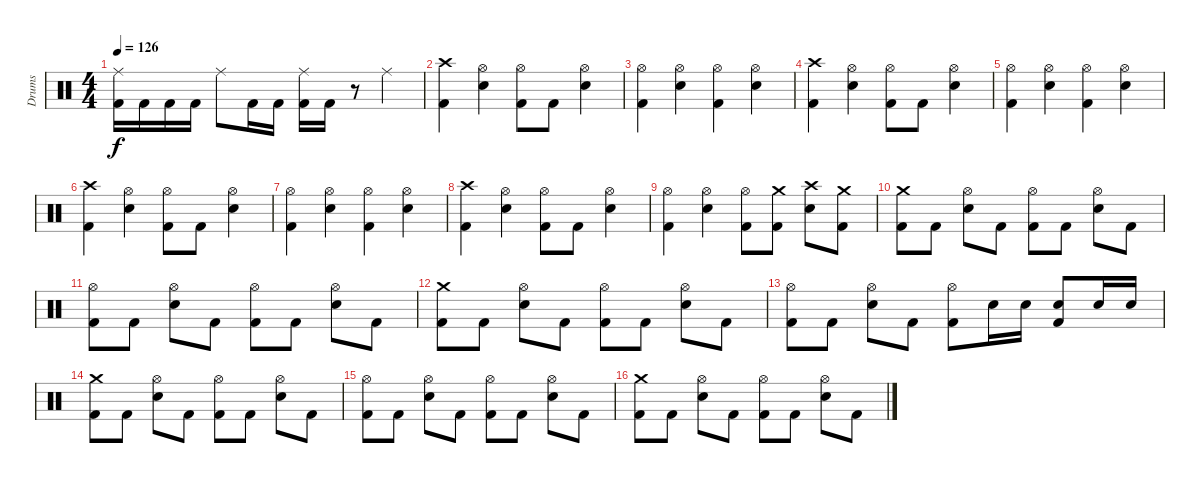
\track ("Drums" "Drums") {instrument percussion}
\staff {score}
\articulation defaults
\ts (4 4)
\tempo 126
\clef neutral
\ks c
("Ride (middle)" "Kick (hit) 2").16{dy f} "Kick (hit) 2".16 "Kick (hit) 2".16 "Kick (hit) 2".16 "Ride (middle)".8 "Kick (hit) 2".16 "Kick (hit) 2".16 ("Ride (middle)" "Kick (hit) 2").16 "Kick (hit) 2".16 r.8 "Ride (middle)".4 |
("Crash high (hit)" "Kick (hit) 2").4 ("Hi-Hat (open)" "Electric Snare (hit)").4 ("Hi-Hat (open)" "Kick (hit) 2").8 "Kick (hit) 2".8 ("Hi-Hat (open)" "Electric Snare (hit)").4 |
("Hi-Hat (open)" "Kick (hit) 2").4 ("Hi-Hat (open)" "Electric Snare (hit)").4 ("Hi-Hat (open)" "Kick (hit) 2").4 ("Hi-Hat (open)" "Electric Snare (hit)").4 |
("Crash high (hit)" "Kick (hit) 2").4 ("Hi-Hat (open)" "Electric Snare (hit)").4 ("Hi-Hat (open)" "Kick (hit) 2").8 "Kick (hit) 2".8 ("Hi-Hat (open)" "Electric Snare (hit)").4 |
("Hi-Hat (open)" "Kick (hit) 2").4 ("Hi-Hat (open)" "Electric Snare (hit)").4 ("Hi-Hat (open)" "Kick (hit) 2").4 ("Hi-Hat (open)" "Electric Snare (hit)").4 |
("Crash high (hit)" "Kick (hit) 2").4 ("Hi-Hat (open)" "Electric Snare (hit)").4 ("Hi-Hat (open)" "Kick (hit) 2").8 "Kick (hit) 2".8 ("Hi-Hat (open)" "Electric Snare (hit)").4 |
("Hi-Hat (open)" "Kick (hit) 2").4 ("Hi-Hat (open)" "Electric Snare (hit)").4 ("Hi-Hat (open)" "Kick (hit) 2").4 ("Hi-Hat (open)" "Electric Snare (hit)").4 |
("Crash high (hit)" "Kick (hit) 2").4 ("Hi-Hat (open)" "Electric Snare (hit)").4 ("Hi-Hat (open)" "Kick (hit) 2").8 "Kick (hit) 2".8 ("Hi-Hat (open)" "Electric Snare (hit)").4 |
("Hi-Hat (open)" "Kick (hit) 2").4 ("Hi-Hat (open)" "Electric Snare (hit)").4 ("Hi-Hat (open)" "Kick (hit) 2").8 ("Crash medium (hit)" "Kick (hit) 2").8 ("Crash high (hit)" "Electric Snare (hit)").8 ("Crash medium (hit)" "Kick (hit) 2").8 |
("Crash medium (hit)" "Kick (hit) 2").8 "Kick (hit) 2".8 ("Hi-Hat (open)" "Electric Snare (hit)").8 "Kick (hit) 2".8 ("Hi-Hat (open)" "Kick (hit) 2").8 "Kick (hit) 2".8 ("Hi-Hat (open)" "Electric Snare (hit)").8 "Kick (hit) 2".8 |
("Hi-Hat (open)" "Kick (hit) 2").8 "Kick (hit) 2".8 ("Hi-Hat (open)" "Electric Snare (hit)").8 "Kick (hit) 2".8 ("Hi-Hat (open)" "Kick (hit) 2").8 "Kick (hit) 2".8 ("Hi-Hat (open)" "Electric Snare (hit)").8 "Kick (hit) 2".8 |
("Crash medium (hit)" "Kick (hit) 2").8 "Kick (hit) 2".8 ("Hi-Hat (open)" "Electric Snare (hit)").8 "Kick (hit) 2".8 ("Hi-Hat (open)" "Kick (hit) 2").8 "Kick (hit) 2".8 ("Hi-Hat (open)" "Electric Snare (hit)").8 "Kick (hit) 2".8 |
("Hi-Hat (open)" "Kick (hit) 2").8 "Kick (hit) 2".8 ("Hi-Hat (open)" "Electric Snare (hit)").8 "Kick (hit) 2".8 ("Hi-Hat (open)" "Kick (hit) 2").8 "Electric Snare (hit)".16 "Electric Snare (hit)".16 ("Electric Snare (hit)" "Kick (hit) 2").8 "Electric Snare (hit)".16 "Electric Snare (hit)".16 |
("Crash medium (hit)" "Kick (hit) 2").8 "Kick (hit) 2".8 ("Hi-Hat (open)" "Electric Snare (hit)").8 "Kick (hit) 2".8 ("Hi-Hat (open)" "Kick (hit) 2").8 "Kick (hit) 2".8 ("Hi-Hat (open)" "Electric Snare (hit)").8 "Kick (hit) 2".8 |
("Hi-Hat (open)" "Kick (hit) 2").8 "Kick (hit) 2".8 ("Hi-Hat (open)" "Electric Snare (hit)").8 "Kick (hit) 2".8 ("Hi-Hat (open)" "Kick (hit) 2").8 "Kick (hit) 2".8 ("Hi-Hat (open)" "Electric Snare (hit)").8 "Kick (hit) 2".8 |
("Crash medium (hit)" "Kick (hit) 2").8 "Kick (hit) 2".8 ("Hi-Hat (open)" "Electric Snare (hit)").8 "Kick (hit) 2".8 ("Hi-Hat (open)" "Kick (hit) 2").8 "Kick (hit) 2".8 ("Hi-Hat (open)" "Electric Snare (hit)").8 "Kick (hit) 2".8
